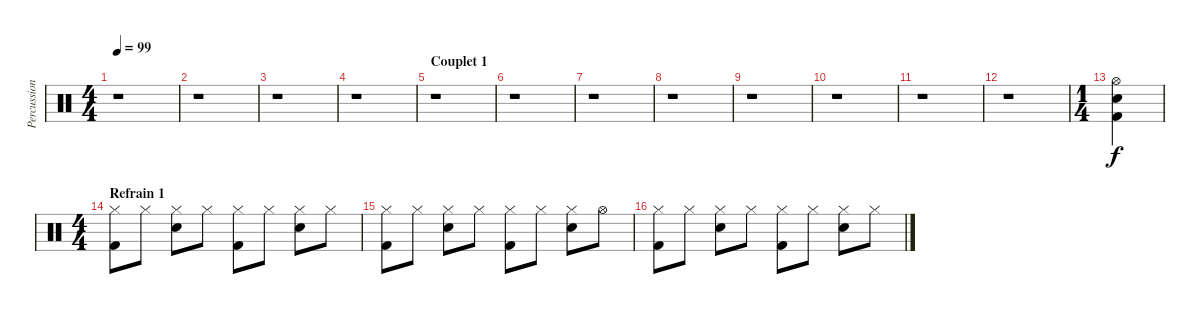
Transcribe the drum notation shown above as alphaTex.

\track ("Percussions" "Percussion") {instrument percussion}
\staff {score}
\articulation defaults
\ts (4 4)
\tempo 99
\clef neutral
\ks c
r.1{dy f} |
r.1 |
r.1 |
r.1 |
\section ("" "Couplet 1")
r.1 |
r.1 |
r.1 |
r.1 |
r.1 |
r.1 |
r.1 |
r.1 |
\ts (1 4)
("Hi-Hat (open)" "Electric Snare (hit)" "Kick (hit) 2").4 |
\ts (4 4)
\section ("" "Refrain 1")
("Hi-Hat (closed)" "Kick (hit) 2").8 "Hi-Hat (closed)".8 ("Hi-Hat (closed)" "Electric Snare (hit)").8 "Hi-Hat (closed)".8 ("Hi-Hat (closed)" "Kick (hit) 2").8 "Hi-Hat (closed)".8 ("Hi-Hat (closed)" "Electric Snare (hit)").8 "Hi-Hat (closed)".8 |
("Hi-Hat (closed)" "Kick (hit) 2").8 "Hi-Hat (closed)".8 ("Hi-Hat (closed)" "Electric Snare (hit)").8 "Hi-Hat (closed)".8 ("Hi-Hat (closed)" "Kick (hit) 2").8 "Hi-Hat (closed)".8 ("Hi-Hat (closed)" "Electric Snare (hit)").8 "Hi-Hat (open)".8 |
("Hi-Hat (closed)" "Kick (hit) 2").8 "Hi-Hat (closed)".8 ("Hi-Hat (closed)" "Electric Snare (hit)").8 "Hi-Hat (closed)".8 ("Hi-Hat (closed)" "Kick (hit) 2").8 "Hi-Hat (closed)".8 ("Hi-Hat (closed)" "Electric Snare (hit)").8 "Hi-Hat (closed)".8
